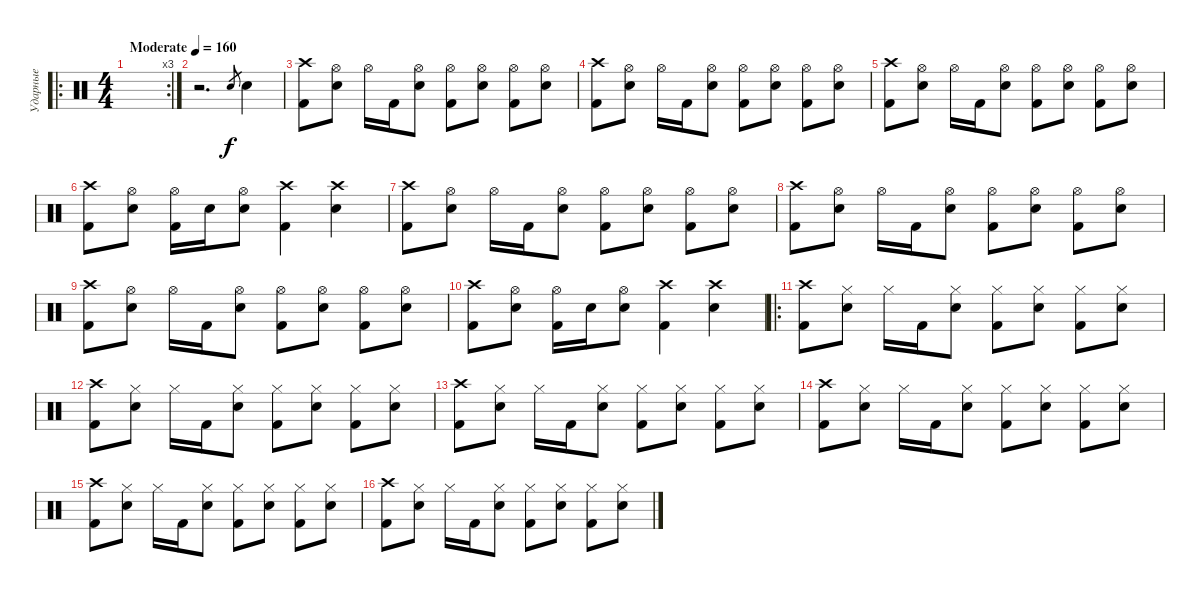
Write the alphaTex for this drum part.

\track ("Ударные" "Ударные") {instrument percussion}
\staff {score}
\articulation defaults
\ro
\rc 3
\ts (4 4)
\tempo (160 "Moderate")
\clef neutral
\ks c
|
r.2{d} "Electric Snare (hit)".8{gr} "Electric Snare (hit)".4 |
("Kick (hit) 2" "Crash high (hit)").8 ("Electric Snare (hit)" "Hi-Hat (open)").8 "Hi-Hat (open)".16 "Kick (hit) 2".16 ("Electric Snare (hit)" "Hi-Hat (open)").8 ("Kick (hit) 2" "Hi-Hat (open)").8 ("Electric Snare (hit)" "Hi-Hat (open)").8 ("Kick (hit) 2" "Hi-Hat (open)").8 ("Electric Snare (hit)" "Hi-Hat (open)").8 |
("Kick (hit) 2" "Crash high (hit)").8 ("Electric Snare (hit)" "Hi-Hat (open)").8 "Hi-Hat (open)".16 "Kick (hit) 2".16 ("Electric Snare (hit)" "Hi-Hat (open)").8 ("Kick (hit) 2" "Hi-Hat (open)").8 ("Electric Snare (hit)" "Hi-Hat (open)").8 ("Kick (hit) 2" "Hi-Hat (open)").8 ("Electric Snare (hit)" "Hi-Hat (open)").8 |
("Kick (hit) 2" "Crash high (hit)").8 ("Electric Snare (hit)" "Hi-Hat (open)").8 "Hi-Hat (open)".16 "Kick (hit) 2".16 ("Electric Snare (hit)" "Hi-Hat (open)").8 ("Kick (hit) 2" "Hi-Hat (open)").8 ("Electric Snare (hit)" "Hi-Hat (open)").8 ("Kick (hit) 2" "Hi-Hat (open)").8 ("Electric Snare (hit)" "Hi-Hat (open)").8 |
("Kick (hit) 2" "Crash high (hit)").8 ("Electric Snare (hit)" "Hi-Hat (open)").8 ("Kick (hit) 2" "Hi-Hat (open)").16 "Electric Snare (hit)".16 ("Electric Snare (hit)" "Hi-Hat (open)").8 ("Kick (hit) 2" "Crash high (hit)").4 ("Electric Snare (hit)" "Crash high (hit)").4 |
("Kick (hit) 2" "Crash high (hit)").8 ("Electric Snare (hit)" "Hi-Hat (open)").8 "Hi-Hat (open)".16 "Kick (hit) 2".16 ("Electric Snare (hit)" "Hi-Hat (open)").8 ("Kick (hit) 2" "Hi-Hat (open)").8 ("Electric Snare (hit)" "Hi-Hat (open)").8 ("Kick (hit) 2" "Hi-Hat (open)").8 ("Electric Snare (hit)" "Hi-Hat (open)").8 |
("Kick (hit) 2" "Crash high (hit)").8 ("Electric Snare (hit)" "Hi-Hat (open)").8 "Hi-Hat (open)".16 "Kick (hit) 2".16 ("Electric Snare (hit)" "Hi-Hat (open)").8 ("Kick (hit) 2" "Hi-Hat (open)").8 ("Electric Snare (hit)" "Hi-Hat (open)").8 ("Kick (hit) 2" "Hi-Hat (open)").8 ("Electric Snare (hit)" "Hi-Hat (open)").8 |
("Kick (hit) 2" "Crash high (hit)").8 ("Electric Snare (hit)" "Hi-Hat (open)").8 "Hi-Hat (open)".16 "Kick (hit) 2".16 ("Electric Snare (hit)" "Hi-Hat (open)").8 ("Kick (hit) 2" "Hi-Hat (open)").8 ("Electric Snare (hit)" "Hi-Hat (open)").8 ("Kick (hit) 2" "Hi-Hat (open)").8 ("Electric Snare (hit)" "Hi-Hat (open)").8 |
("Kick (hit) 2" "Crash high (hit)").8 ("Electric Snare (hit)" "Hi-Hat (open)").8 ("Kick (hit) 2" "Hi-Hat (open)").16 "Electric Snare (hit)".16 ("Electric Snare (hit)" "Hi-Hat (open)").8 ("Kick (hit) 2" "Crash high (hit)").4 ("Electric Snare (hit)" "Crash high (hit)").4 |
\ro
("Kick (hit) 2" "Crash high (hit)").8 ("Electric Snare (hit)" "Hi-Hat (closed)").8 "Hi-Hat (closed)".16 "Kick (hit) 2".16 ("Electric Snare (hit)" "Hi-Hat (closed)").8 ("Kick (hit) 2" "Hi-Hat (closed)").8 ("Electric Snare (hit)" "Hi-Hat (closed)").8 ("Kick (hit) 2" "Hi-Hat (closed)").8 ("Electric Snare (hit)" "Hi-Hat (closed)").8 |
("Kick (hit) 2" "Crash high (hit)").8 ("Electric Snare (hit)" "Hi-Hat (closed)").8 "Hi-Hat (closed)".16 "Kick (hit) 2".16 ("Electric Snare (hit)" "Hi-Hat (closed)").8 ("Kick (hit) 2" "Hi-Hat (closed)").8 ("Electric Snare (hit)" "Hi-Hat (closed)").8 ("Kick (hit) 2" "Hi-Hat (closed)").8 ("Electric Snare (hit)" "Hi-Hat (closed)").8 |
("Kick (hit) 2" "Crash high (hit)").8 ("Electric Snare (hit)" "Hi-Hat (closed)").8 "Hi-Hat (closed)".16 "Kick (hit) 2".16 ("Electric Snare (hit)" "Hi-Hat (closed)").8 ("Kick (hit) 2" "Hi-Hat (closed)").8 ("Electric Snare (hit)" "Hi-Hat (closed)").8 ("Kick (hit) 2" "Hi-Hat (closed)").8 ("Electric Snare (hit)" "Hi-Hat (closed)").8 |
("Kick (hit) 2" "Crash high (hit)").8 ("Electric Snare (hit)" "Hi-Hat (closed)").8 "Hi-Hat (closed)".16 "Kick (hit) 2".16 ("Electric Snare (hit)" "Hi-Hat (closed)").8 ("Kick (hit) 2" "Hi-Hat (closed)").8 ("Electric Snare (hit)" "Hi-Hat (closed)").8 ("Kick (hit) 2" "Hi-Hat (closed)").8 ("Electric Snare (hit)" "Hi-Hat (closed)").8 |
("Kick (hit) 2" "Crash high (hit)").8 ("Electric Snare (hit)" "Hi-Hat (closed)").8 "Hi-Hat (closed)".16 "Kick (hit) 2".16 ("Electric Snare (hit)" "Hi-Hat (closed)").8 ("Kick (hit) 2" "Hi-Hat (closed)").8 ("Electric Snare (hit)" "Hi-Hat (closed)").8 ("Kick (hit) 2" "Hi-Hat (closed)").8 ("Electric Snare (hit)" "Hi-Hat (closed)").8 |
("Kick (hit) 2" "Crash high (hit)").8 ("Electric Snare (hit)" "Hi-Hat (closed)").8 "Hi-Hat (closed)".16 "Kick (hit) 2".16 ("Electric Snare (hit)" "Hi-Hat (closed)").8 ("Kick (hit) 2" "Hi-Hat (closed)").8 ("Electric Snare (hit)" "Hi-Hat (closed)").8 ("Kick (hit) 2" "Hi-Hat (closed)").8 ("Electric Snare (hit)" "Hi-Hat (closed)").8
